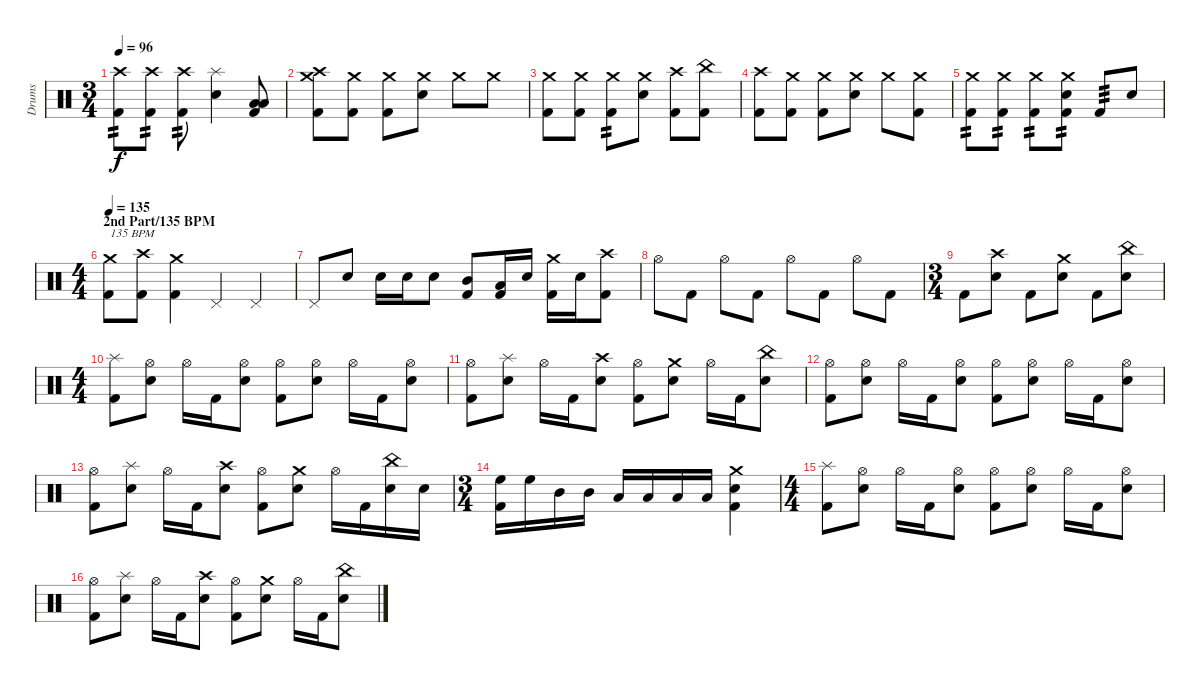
\track ("Drums" "Drums") {instrument percussion}
\staff {score}
\articulation defaults
\ts (3 4)
\tempo 96
\clef neutral
\ks c
("Crash high (hit)" "Kick (hit) 2").8{tp 2 dy f} ("Crash high (hit)" "Kick (hit) 2").8{tp 2} ("Crash high (hit)" "Kick (hit) 2").8{tp 2} ("Splash (hit)" "Snare (hit) 2").4 ("Low Tom (hit)" "Low Floor Tom (hit)" "Kick (hit) 2").8 |
("Crash medium (hit)" "Crash high (hit)" "Kick (hit) 2").8 ("Crash medium (hit)" "Kick (hit) 2").8 ("Crash medium (hit)" "Kick (hit) 2").8 ("Crash medium (hit)" "Snare (hit) 2").8 "Crash medium (hit)".8 "Crash medium (hit)".8 |
("Crash medium (hit)" "Kick (hit) 2").8 ("Crash medium (hit)" "Kick (hit) 2").8 ("Crash medium (hit)" "Kick (hit) 2").8{tp 2} ("Crash medium (hit)" "Snare (hit) 2").8 ("Crash high (hit)" "Kick (hit) 2").8 ("China (hit)" "Kick (hit) 2").8 |
("Crash high (hit)" "Kick (hit) 2").8 ("Crash medium (hit)" "Kick (hit) 2").8 ("Crash medium (hit)" "Kick (hit) 2").8 ("Crash medium (hit)" "Snare (hit) 2").8 "Crash medium (hit)".8 ("Crash medium (hit)" "Kick (hit) 2").8 |
("Crash medium (hit)" "Kick (hit) 2").8{tp 2} ("Crash medium (hit)" "Kick (hit) 2").8{tp 2} ("Crash medium (hit)" "Kick (hit) 2").8{tp 2} ("Crash medium (hit)" "Snare (hit) 2" "Kick (hit) 2").8{tp 2} "Kick (hit) 2".8{tp 3} "Snare (hit) 2".8 |
\ts (4 4)
\section ("" "2nd Part/135 BPM")
\tempo 135
("Crash medium (hit)" "Kick (hit) 2").8{txt "135 BPM"} ("Crash high (hit)" "Kick (hit) 2").8 ("Crash medium (hit)" "Kick (hit) 2").4 "Pedal Hi-Hat (hit)".4 "Pedal Hi-Hat (hit)".4 |
"Pedal Hi-Hat (hit)".8 "Snare (hit) 2".8 "Snare (hit) 2".16 "Snare (hit) 2".16 "Snare (hit) 2".8 ("Mid Tom (hit)" "Kick (hit) 2").8 ("Low Tom (hit)" "Kick (hit) 2").16 "Snare (hit) 2".16 ("Crash medium (hit)" "Kick (hit) 2").16 "Snare (hit) 2".16 ("Crash high (hit)" "Kick (hit) 2").8 |
"Hi-Hat (open)".8 "Kick (hit) 2".8 "Hi-Hat (open)".8 "Kick (hit) 2".8 "Hi-Hat (open)".8 "Kick (hit) 2".8 "Hi-Hat (open)".8 "Kick (hit) 2".8 |
\ts (3 4)
"Kick (hit) 2".8 ("Crash high (hit)" "Snare (hit) 2").8 "Kick (hit) 2".8 ("Crash medium (hit)" "Snare (hit) 2").8 "Kick (hit) 2".8 ("China (hit)" "Snare (hit) 2").8 |
\ts (4 4)
("Splash (hit)" "Kick (hit) 2").8 ("Hi-Hat (open)" "Snare (hit) 2").8 "Hi-Hat (open)".16 "Kick (hit) 2".16 ("Hi-Hat (open)" "Snare (hit) 2").8 ("Hi-Hat (open)" "Kick (hit) 2").8 ("Hi-Hat (open)" "Snare (hit) 2").8 "Hi-Hat (open)".16 "Kick (hit) 2".16 ("Hi-Hat (open)" "Snare (hit) 2").8 |
("Hi-Hat (open)" "Kick (hit) 2").8 ("Splash (hit)" "Snare (hit) 2").8 "Hi-Hat (open)".16 "Kick (hit) 2".16 ("Crash high (hit)" "Snare (hit) 2").8 ("Hi-Hat (open)" "Kick (hit) 2").8 ("Crash medium (hit)" "Snare (hit) 2").8 "Hi-Hat (open)".16 "Kick (hit) 2".16 ("China (hit)" "Snare (hit) 2").8 |
("Hi-Hat (open)" "Kick (hit) 2").8 ("Hi-Hat (open)" "Snare (hit) 2").8 "Hi-Hat (open)".16 "Kick (hit) 2".16 ("Hi-Hat (open)" "Snare (hit) 2").8 ("Hi-Hat (open)" "Kick (hit) 2").8 ("Hi-Hat (open)" "Snare (hit) 2").8 "Hi-Hat (open)".16 "Kick (hit) 2".16 ("Hi-Hat (open)" "Snare (hit) 2").8 |
("Hi-Hat (open)" "Kick (hit) 2").8 ("Splash (hit)" "Snare (hit) 2").8 "Hi-Hat (open)".16 "Kick (hit) 2".16 ("Crash high (hit)" "Snare (hit) 2").8 ("Hi-Hat (open)" "Kick (hit) 2").8 ("Crash medium (hit)" "Snare (hit) 2").8 "Hi-Hat (open)".16 "Kick (hit) 2".16 ("China (hit)" "Snare (hit) 2").16 "Snare (hit) 2".16 |
\ts (3 4)
("High Floor Tom (hit)" "Kick (hit) 2").16 "High Floor Tom (hit)".16 "Mid Tom (hit)".16 "Mid Tom (hit)".16 "Low Tom (hit)".16 "Low Tom (hit)".16 "Low Floor Tom (hit)".16 "Low Floor Tom (hit)".16 ("Crash medium (hit)" "Snare (hit) 2" "Kick (hit) 2").4 |
\ts (4 4)
("Splash (hit)" "Kick (hit) 2").8 ("Hi-Hat (open)" "Snare (hit) 2").8 "Hi-Hat (open)".16 "Kick (hit) 2".16 ("Hi-Hat (open)" "Snare (hit) 2").8 ("Hi-Hat (open)" "Kick (hit) 2").8 ("Hi-Hat (open)" "Snare (hit) 2").8 "Hi-Hat (open)".16 "Kick (hit) 2".16 ("Hi-Hat (open)" "Snare (hit) 2").8 |
("Hi-Hat (open)" "Kick (hit) 2").8 ("Splash (hit)" "Snare (hit) 2").8 "Hi-Hat (open)".16 "Kick (hit) 2".16 ("Crash high (hit)" "Snare (hit) 2").8 ("Hi-Hat (open)" "Kick (hit) 2").8 ("Crash medium (hit)" "Snare (hit) 2").8 "Hi-Hat (open)".16 "Kick (hit) 2".16 ("China (hit)" "Snare (hit) 2").8
